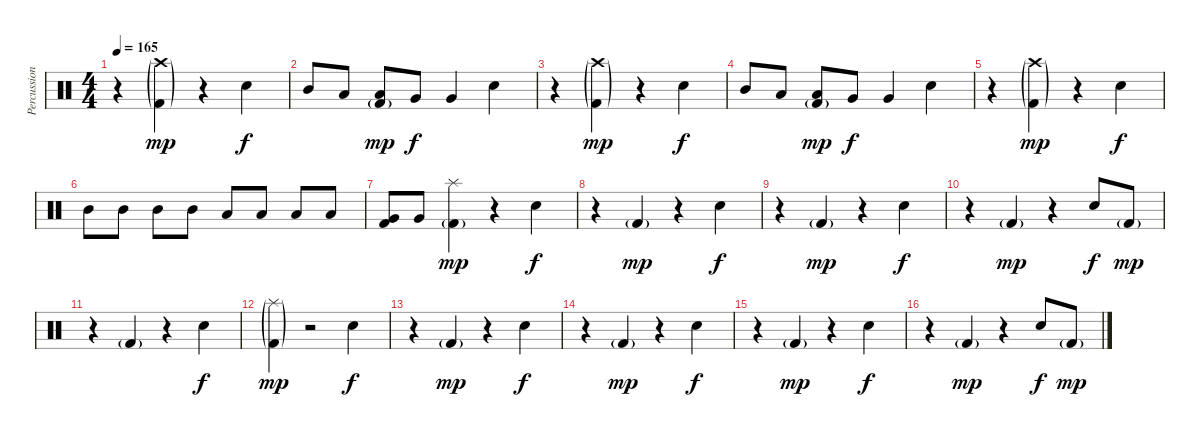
\track ("Percussions" "Percussion") {instrument percussion}
\staff {score}
\articulation defaults
\ts (4 4)
\tempo 165
\clef neutral
\ks c
r.4{dy f} ("Kick (hit) 2"{g} "Crash high (hit)"{g}).4{dy mp} r.4 "Electric Snare (hit)".4{dy f} |
"Mid Tom (hit)".8 "Low Tom (hit)".8 ("Kick (hit) 2"{g} "Low Tom (hit)").8{dy mp} "Very Low Tom (hit)".8{dy f} "Very Low Tom (hit)".4 "Electric Snare (hit)".4 |
r.4 ("Kick (hit) 2"{g} "Crash high (hit)"{g}).4{dy mp} r.4 "Electric Snare (hit)".4{dy f} |
"Mid Tom (hit)".8 "Low Tom (hit)".8 ("Kick (hit) 2"{g} "Low Tom (hit)").8{dy mp} "Very Low Tom (hit)".8{dy f} "Very Low Tom (hit)".4 "Electric Snare (hit)".4 |
r.4 ("Kick (hit) 2"{g} "Crash high (hit)"{g}).4{dy mp} r.4 "Electric Snare (hit)".4{dy f} |
"Mid Tom (hit)".8 "Mid Tom (hit)".8 "Mid Tom (hit)".8 "Mid Tom (hit)".8 "Low Tom (hit)".8 "Low Tom (hit)".8 "Low Tom (hit)".8 "Low Tom (hit)".8 |
("Very Low Tom (hit)" "Kick (hit) 2").8 "Very Low Tom (hit)".8 ("Kick (hit) 2"{g} "Splash (hit)").4{dy mp} r.4 "Electric Snare (hit)".4{dy f} |
r.4 "Kick (hit) 2"{g}.4{dy mp} r.4 "Electric Snare (hit)".4{dy f} |
r.4 "Kick (hit) 2"{g}.4{dy mp} r.4 "Electric Snare (hit)".4{dy f} |
r.4 "Kick (hit) 2"{g}.4{dy mp} r.4 "Electric Snare (hit)".8{dy f} "Kick (hit) 2"{g}.8{dy mp} |
r.4 "Kick (hit) 2"{g}.4 r.4 "Electric Snare (hit)".4{dy f} |
("Splash (hit)"{g} "Kick (hit) 2"{g}).4{dy mp} r.2 "Electric Snare (hit)".4{dy f} |
r.4 "Kick (hit) 2"{g}.4{dy mp} r.4 "Electric Snare (hit)".4{dy f} |
r.4 "Kick (hit) 2"{g}.4{dy mp} r.4 "Electric Snare (hit)".4{dy f} |
r.4 "Kick (hit) 2"{g}.4{dy mp} r.4 "Electric Snare (hit)".4{dy f} |
r.4 "Kick (hit) 2"{g}.4{dy mp} r.4 "Electric Snare (hit)".8{dy f} "Kick (hit) 2"{g}.8{dy mp}
